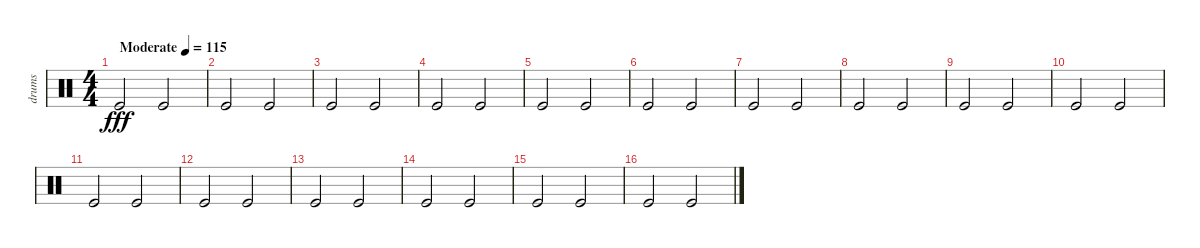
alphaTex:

\track ("drums" "drums") {instrument percussion}
\staff {score}
\articulation defaults
\ts (4 4)
\tempo (115 "Moderate")
\clef neutral
\ks c "Kick (hit)".2{dy fff} "Kick (hit)".2
|
"Kick (hit)".2 "Kick (hit)".2 |
"Kick (hit)".2 "Kick (hit)".2 |
"Kick (hit)".2 "Kick (hit)".2 |
"Kick (hit)".2 "Kick (hit)".2 |
"Kick (hit)".2 "Kick (hit)".2 |
"Kick (hit)".2 "Kick (hit)".2 |
"Kick (hit)".2 "Kick (hit)".2 |
"Kick (hit)".2 "Kick (hit)".2 |
"Kick (hit)".2 "Kick (hit)".2 |
"Kick (hit)".2 "Kick (hit)".2 |
"Kick (hit)".2 "Kick (hit)".2 |
"Kick (hit)".2 "Kick (hit)".2 |
"Kick (hit)".2 "Kick (hit)".2 |
"Kick (hit)".2 "Kick (hit)".2 |
"Kick (hit)".2 "Kick (hit)".2
